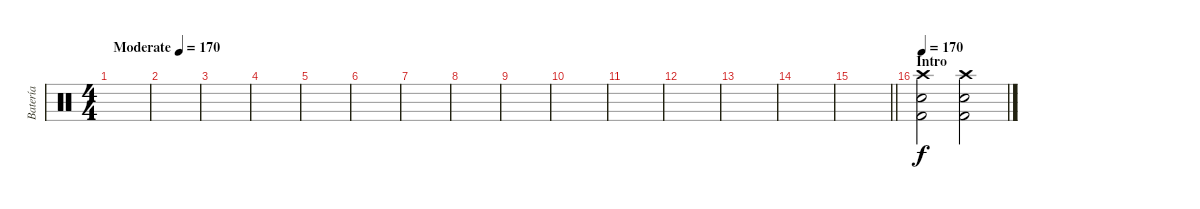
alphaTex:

\track ("Batería" "Batería") {instrument percussion}
\staff {score}
\articulation defaults
\ts (4 4)
\tempo (170 "Moderate")
\tempo 90
\tempo (170 "Moderate")
\clef neutral
\ks c
|
|
|
|
|
|
|
|
|
|
|
|
|
|
\barLineRight lightlight
|
\section ("" "Intro")
\tempo 170
("Crash high (hit)" "Snare (hit) 2" "Kick (hit) 2").2 ("Crash high (hit)" "Snare (hit) 2" "Kick (hit) 2").2
